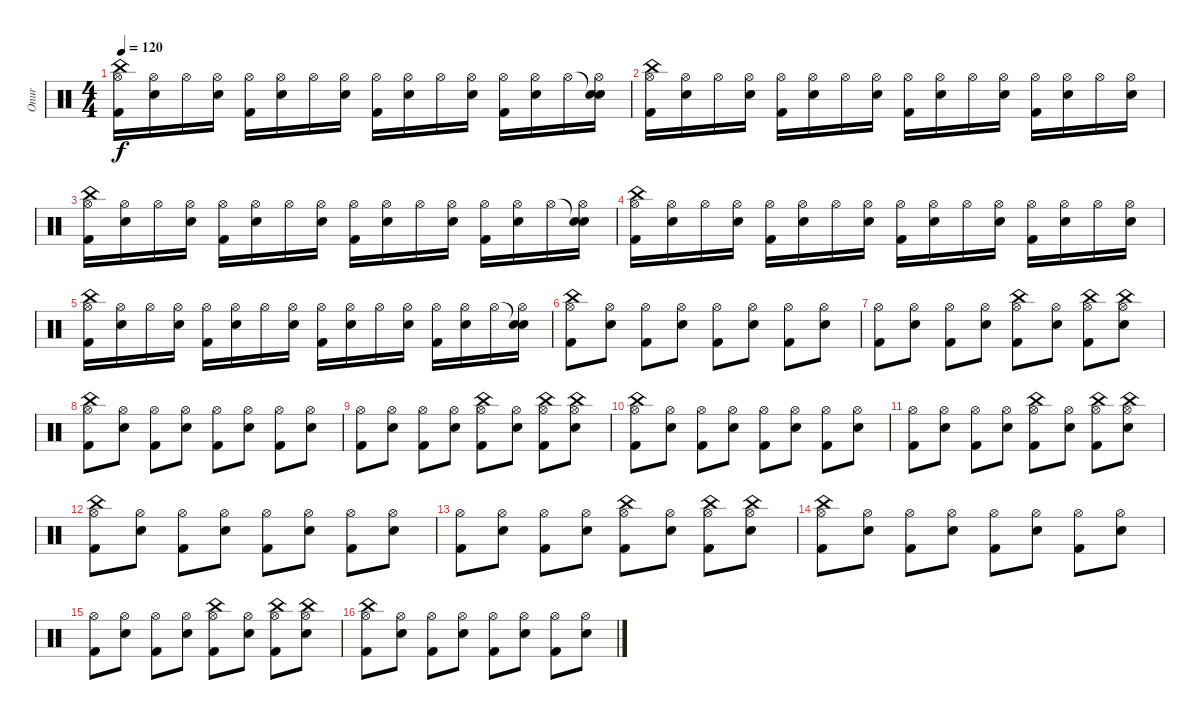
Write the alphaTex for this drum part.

\track ("Onur" "Onur") {instrument percussion}
\staff {score}
\articulation defaults
\ts (4 4)
\tempo 120
\clef neutral
\ks c
("China (hit)" "Hi-Hat (open)" "Kick (hit) 2").16{dy f} ("Hi-Hat (open)" "Snare (hit) 2").16 "Hi-Hat (open)".16 ("Hi-Hat (open)" "Snare (hit) 2").16 ("Hi-Hat (open)" "Kick (hit) 2").16 ("Hi-Hat (open)" "Snare (hit) 2").16 "Hi-Hat (open)".16 ("Hi-Hat (open)" "Snare (hit) 2").16 ("Hi-Hat (open)" "Kick (hit) 2").16 ("Hi-Hat (open)" "Snare (hit) 2").16 "Hi-Hat (open)".16 ("Hi-Hat (open)" "Snare (hit) 2").16 ("Hi-Hat (open)" "Kick (hit) 2").16 ("Hi-Hat (open)" "Snare (hit) 2").16 "Hi-Hat (open)".16 ("Snare (hit)"{t} "Hi-Hat (open)" "Snare (hit) 2").16 |
("China (hit)" "Hi-Hat (open)" "Kick (hit) 2").16 ("Hi-Hat (open)" "Snare (hit) 2").16 "Hi-Hat (open)".16 ("Hi-Hat (open)" "Snare (hit) 2").16 ("Hi-Hat (open)" "Kick (hit) 2").16 ("Hi-Hat (open)" "Snare (hit) 2").16 "Hi-Hat (open)".16 ("Hi-Hat (open)" "Snare (hit) 2").16 ("Hi-Hat (open)" "Kick (hit) 2").16 ("Hi-Hat (open)" "Snare (hit) 2").16 "Hi-Hat (open)".16 ("Hi-Hat (open)" "Snare (hit) 2").16 ("Hi-Hat (open)" "Kick (hit) 2").16 ("Hi-Hat (open)" "Snare (hit) 2").16 "Hi-Hat (open)".16 ("Hi-Hat (open)" "Snare (hit) 2").16 |
("China (hit)" "Hi-Hat (open)" "Kick (hit) 2").16 ("Hi-Hat (open)" "Snare (hit) 2").16 "Hi-Hat (open)".16 ("Hi-Hat (open)" "Snare (hit) 2").16 ("Hi-Hat (open)" "Kick (hit) 2").16 ("Hi-Hat (open)" "Snare (hit) 2").16 "Hi-Hat (open)".16 ("Hi-Hat (open)" "Snare (hit) 2").16 ("Hi-Hat (open)" "Kick (hit) 2").16 ("Hi-Hat (open)" "Snare (hit) 2").16 "Hi-Hat (open)".16 ("Hi-Hat (open)" "Snare (hit) 2").16 ("Hi-Hat (open)" "Kick (hit) 2").16 ("Hi-Hat (open)" "Snare (hit) 2").16 "Hi-Hat (open)".16 ("Snare (hit)"{t} "Hi-Hat (open)" "Snare (hit) 2").16 |
("China (hit)" "Hi-Hat (open)" "Kick (hit) 2").16 ("Hi-Hat (open)" "Snare (hit) 2").16 "Hi-Hat (open)".16 ("Hi-Hat (open)" "Snare (hit) 2").16 ("Hi-Hat (open)" "Kick (hit) 2").16 ("Hi-Hat (open)" "Snare (hit) 2").16 "Hi-Hat (open)".16 ("Hi-Hat (open)" "Snare (hit) 2").16 ("Hi-Hat (open)" "Kick (hit) 2").16 ("Hi-Hat (open)" "Snare (hit) 2").16 "Hi-Hat (open)".16 ("Hi-Hat (open)" "Snare (hit) 2").16 ("Hi-Hat (open)" "Kick (hit) 2").16 ("Hi-Hat (open)" "Snare (hit) 2").16 "Hi-Hat (open)".16 ("Hi-Hat (open)" "Snare (hit) 2").16 |
("China (hit)" "Hi-Hat (open)" "Kick (hit) 2").16 ("Hi-Hat (open)" "Snare (hit) 2").16 "Hi-Hat (open)".16 ("Hi-Hat (open)" "Snare (hit) 2").16 ("Hi-Hat (open)" "Kick (hit) 2").16 ("Hi-Hat (open)" "Snare (hit) 2").16 "Hi-Hat (open)".16 ("Hi-Hat (open)" "Snare (hit) 2").16 ("Hi-Hat (open)" "Kick (hit) 2").16 ("Hi-Hat (open)" "Snare (hit) 2").16 "Hi-Hat (open)".16 ("Hi-Hat (open)" "Snare (hit) 2").16 ("Hi-Hat (open)" "Kick (hit) 2").16 ("Hi-Hat (open)" "Snare (hit) 2").16 "Hi-Hat (open)".16 ("Snare (hit)"{t} "Hi-Hat (open)" "Snare (hit) 2").16 |
("China (hit)" "Hi-Hat (open)" "Kick (hit) 2").8 ("Hi-Hat (open)" "Snare (hit) 2").8 ("Hi-Hat (open)" "Kick (hit) 2").8 ("Hi-Hat (open)" "Snare (hit) 2").8 ("Hi-Hat (open)" "Kick (hit) 2").8 ("Hi-Hat (open)" "Snare (hit) 2").8 ("Hi-Hat (open)" "Kick (hit) 2").8 ("Hi-Hat (open)" "Snare (hit) 2").8 |
("Hi-Hat (open)" "Kick (hit) 2").8 ("Hi-Hat (open)" "Snare (hit) 2").8 ("Hi-Hat (open)" "Kick (hit) 2").8 ("Hi-Hat (open)" "Snare (hit) 2").8 ("China (hit)" "Hi-Hat (open)" "Kick (hit) 2").8 ("Hi-Hat (open)" "Snare (hit) 2").8 ("China (hit)" "Hi-Hat (open)" "Kick (hit) 2").8 ("China (hit)" "Hi-Hat (open)" "Snare (hit) 2").8 |
("China (hit)" "Hi-Hat (open)" "Kick (hit) 2").8 ("Hi-Hat (open)" "Snare (hit) 2").8 ("Hi-Hat (open)" "Kick (hit) 2").8 ("Hi-Hat (open)" "Snare (hit) 2").8 ("Hi-Hat (open)" "Kick (hit) 2").8 ("Hi-Hat (open)" "Snare (hit) 2").8 ("Hi-Hat (open)" "Kick (hit) 2").8 ("Hi-Hat (open)" "Snare (hit) 2").8 |
("Hi-Hat (open)" "Kick (hit) 2").8 ("Hi-Hat (open)" "Snare (hit) 2").8 ("Hi-Hat (open)" "Kick (hit) 2").8 ("Hi-Hat (open)" "Snare (hit) 2").8 ("China (hit)" "Hi-Hat (open)" "Kick (hit) 2").8 ("Hi-Hat (open)" "Snare (hit) 2").8 ("China (hit)" "Hi-Hat (open)" "Kick (hit) 2").8 ("China (hit)" "Hi-Hat (open)" "Snare (hit) 2").8 |
("China (hit)" "Hi-Hat (open)" "Kick (hit) 2").8 ("Hi-Hat (open)" "Snare (hit) 2").8 ("Hi-Hat (open)" "Kick (hit) 2").8 ("Hi-Hat (open)" "Snare (hit) 2").8 ("Hi-Hat (open)" "Kick (hit) 2").8 ("Hi-Hat (open)" "Snare (hit) 2").8 ("Hi-Hat (open)" "Kick (hit) 2").8 ("Hi-Hat (open)" "Snare (hit) 2").8 |
("Hi-Hat (open)" "Kick (hit) 2").8 ("Hi-Hat (open)" "Snare (hit) 2").8 ("Hi-Hat (open)" "Kick (hit) 2").8 ("Hi-Hat (open)" "Snare (hit) 2").8 ("China (hit)" "Hi-Hat (open)" "Kick (hit) 2").8 ("Hi-Hat (open)" "Snare (hit) 2").8 ("China (hit)" "Hi-Hat (open)" "Kick (hit) 2").8 ("China (hit)" "Hi-Hat (open)" "Snare (hit) 2").8 |
("China (hit)" "Hi-Hat (open)" "Kick (hit) 2").8 ("Hi-Hat (open)" "Snare (hit) 2").8 ("Hi-Hat (open)" "Kick (hit) 2").8 ("Hi-Hat (open)" "Snare (hit) 2").8 ("Hi-Hat (open)" "Kick (hit) 2").8 ("Hi-Hat (open)" "Snare (hit) 2").8 ("Hi-Hat (open)" "Kick (hit) 2").8 ("Hi-Hat (open)" "Snare (hit) 2").8 |
("Hi-Hat (open)" "Kick (hit) 2").8 ("Hi-Hat (open)" "Snare (hit) 2").8 ("Hi-Hat (open)" "Kick (hit) 2").8 ("Hi-Hat (open)" "Snare (hit) 2").8 ("China (hit)" "Hi-Hat (open)" "Kick (hit) 2").8 ("Hi-Hat (open)" "Snare (hit) 2").8 ("China (hit)" "Hi-Hat (open)" "Kick (hit) 2").8 ("China (hit)" "Hi-Hat (open)" "Snare (hit) 2").8 |
("China (hit)" "Hi-Hat (open)" "Kick (hit) 2").8 ("Hi-Hat (open)" "Snare (hit) 2").8 ("Hi-Hat (open)" "Kick (hit) 2").8 ("Hi-Hat (open)" "Snare (hit) 2").8 ("Hi-Hat (open)" "Kick (hit) 2").8 ("Hi-Hat (open)" "Snare (hit) 2").8 ("Hi-Hat (open)" "Kick (hit) 2").8 ("Hi-Hat (open)" "Snare (hit) 2").8 |
("Hi-Hat (open)" "Kick (hit) 2").8 ("Hi-Hat (open)" "Snare (hit) 2").8 ("Hi-Hat (open)" "Kick (hit) 2").8 ("Hi-Hat (open)" "Snare (hit) 2").8 ("China (hit)" "Hi-Hat (open)" "Kick (hit) 2").8 ("Hi-Hat (open)" "Snare (hit) 2").8 ("China (hit)" "Hi-Hat (open)" "Kick (hit) 2").8 ("China (hit)" "Hi-Hat (open)" "Snare (hit) 2").8 |
("China (hit)" "Hi-Hat (open)" "Kick (hit) 2").8 ("Hi-Hat (open)" "Snare (hit) 2").8 ("Hi-Hat (open)" "Kick (hit) 2").8 ("Hi-Hat (open)" "Snare (hit) 2").8 ("Hi-Hat (open)" "Kick (hit) 2").8 ("Hi-Hat (open)" "Snare (hit) 2").8 ("Hi-Hat (open)" "Kick (hit) 2").8 ("Hi-Hat (open)" "Snare (hit) 2").8
